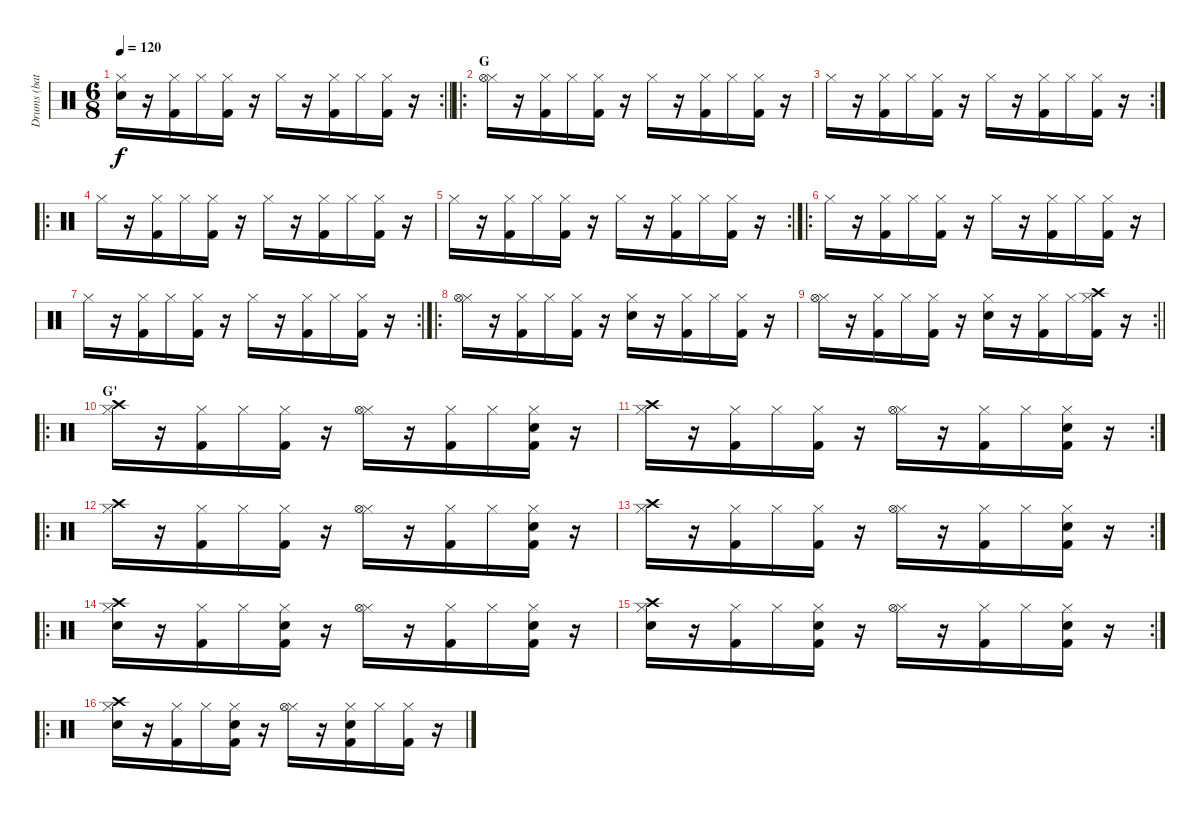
\track ("Drums (bateria)" "Drums (bat") {instrument percussion}
\staff {score}
\articulation defaults
\rc 2
\ts (6 8)
\tempo 120
\clef neutral
\barLineRight lightlight
\ks c
("Hi-Hat (closed)" "Snare (hit) 2").16{dy f} r.16 ("Hi-Hat (closed)" "Kick (hit) 2").16 "Hi-Hat (closed)".16 ("Hi-Hat (closed)" "Kick (hit) 2").16 r.16 "Hi-Hat (closed)".16 r.16 ("Hi-Hat (closed)" "Kick (hit) 2").16 "Hi-Hat (closed)".16 ("Hi-Hat (closed)" "Kick (hit) 2").16 r.16 |
\ro
\section ("" "G")
("Hi-Hat (closed)" "Hi-Hat (open)").16 r.16 ("Hi-Hat (closed)" "Kick (hit) 2").16 "Hi-Hat (closed)".16 ("Hi-Hat (closed)" "Kick (hit) 2").16 r.16 "Hi-Hat (closed)".16 r.16 ("Hi-Hat (closed)" "Kick (hit) 2").16 "Hi-Hat (closed)".16 ("Hi-Hat (closed)" "Kick (hit) 2").16 r.16 |
\rc 2 "Hi-Hat (closed)".16
r.16 ("Hi-Hat (closed)" "Kick (hit) 2").16 "Hi-Hat (closed)".16 ("Hi-Hat (closed)" "Kick (hit) 2").16 r.16 "Hi-Hat (closed)".16 r.16 ("Hi-Hat (closed)" "Kick (hit) 2").16 "Hi-Hat (closed)".16 ("Hi-Hat (closed)" "Kick (hit) 2").16 r.16 |
\ro "Hi-Hat (closed)".16
r.16 ("Hi-Hat (closed)" "Kick (hit) 2").16 "Hi-Hat (closed)".16 ("Hi-Hat (closed)" "Kick (hit) 2").16 r.16 "Hi-Hat (closed)".16 r.16 ("Hi-Hat (closed)" "Kick (hit) 2").16 "Hi-Hat (closed)".16 ("Hi-Hat (closed)" "Kick (hit) 2").16 r.16 |
\rc 2 "Hi-Hat (closed)".16
r.16 ("Hi-Hat (closed)" "Kick (hit) 2").16 "Hi-Hat (closed)".16 ("Hi-Hat (closed)" "Kick (hit) 2").16 r.16 "Hi-Hat (closed)".16 r.16 ("Hi-Hat (closed)" "Kick (hit) 2").16 "Hi-Hat (closed)".16 ("Hi-Hat (closed)" "Kick (hit) 2").16 r.16 |
\ro "Hi-Hat (closed)".16
r.16 ("Hi-Hat (closed)" "Kick (hit) 2").16 "Hi-Hat (closed)".16 ("Hi-Hat (closed)" "Kick (hit) 2").16 r.16 "Hi-Hat (closed)".16 r.16 ("Hi-Hat (closed)" "Kick (hit) 2").16 "Hi-Hat (closed)".16 ("Hi-Hat (closed)" "Kick (hit) 2").16 r.16 |
\rc 2 "Hi-Hat (closed)".16
r.16 ("Hi-Hat (closed)" "Kick (hit) 2").16 "Hi-Hat (closed)".16 ("Hi-Hat (closed)" "Kick (hit) 2").16 r.16 "Hi-Hat (closed)".16 r.16 ("Hi-Hat (closed)" "Kick (hit) 2").16 "Hi-Hat (closed)".16 ("Hi-Hat (closed)" "Kick (hit) 2").16 r.16 |
\ro
("Hi-Hat (closed)" "Hi-Hat (open)").16 r.16 ("Hi-Hat (closed)" "Kick (hit) 2").16 "Hi-Hat (closed)".16 ("Hi-Hat (closed)" "Kick (hit) 2").16 r.16 ("Hi-Hat (closed)" "Snare (hit) 2").16 r.16 ("Hi-Hat (closed)" "Kick (hit) 2").16 "Hi-Hat (closed)".16 ("Hi-Hat (closed)" "Kick (hit) 2").16 r.16 |
\rc 2
\barLineRight lightlight
("Hi-Hat (closed)" "Hi-Hat (open)").16 r.16 ("Hi-Hat (closed)" "Kick (hit) 2").16 "Hi-Hat (closed)".16 ("Hi-Hat (closed)" "Kick (hit) 2").16 r.16 ("Hi-Hat (closed)" "Snare (hit) 2").16 r.16 ("Hi-Hat (closed)" "Kick (hit) 2").16 "Hi-Hat (closed)".16 ("Hi-Hat (closed)" "Kick (hit) 2" "Crash high (hit)").16 r.16 |
\ro
\section ("" "G'")
("Hi-Hat (closed)" "Crash high (hit)").16 r.16 ("Hi-Hat (closed)" "Kick (hit) 2").16 "Hi-Hat (closed)".16 ("Hi-Hat (closed)" "Kick (hit) 2").16 r.16 ("Hi-Hat (closed)" "Hi-Hat (open)").16 r.16 ("Hi-Hat (closed)" "Kick (hit) 2").16 "Hi-Hat (closed)".16 ("Hi-Hat (closed)" "Kick (hit) 2" "Snare (hit) 2").16 r.16 |
\rc 2
("Hi-Hat (closed)" "Crash high (hit)").16 r.16 ("Hi-Hat (closed)" "Kick (hit) 2").16 "Hi-Hat (closed)".16 ("Hi-Hat (closed)" "Kick (hit) 2").16 r.16 ("Hi-Hat (closed)" "Hi-Hat (open)").16 r.16 ("Hi-Hat (closed)" "Kick (hit) 2").16 "Hi-Hat (closed)".16 ("Hi-Hat (closed)" "Kick (hit) 2" "Snare (hit) 2").16 r.16 |
\ro
("Hi-Hat (closed)" "Crash high (hit)").16 r.16 ("Hi-Hat (closed)" "Kick (hit) 2").16 "Hi-Hat (closed)".16 ("Hi-Hat (closed)" "Kick (hit) 2").16 r.16 ("Hi-Hat (closed)" "Hi-Hat (open)").16 r.16 ("Hi-Hat (closed)" "Kick (hit) 2").16 "Hi-Hat (closed)".16 ("Hi-Hat (closed)" "Kick (hit) 2" "Snare (hit) 2").16 r.16 |
\rc 2
("Hi-Hat (closed)" "Crash high (hit)").16 r.16 ("Hi-Hat (closed)" "Kick (hit) 2").16 "Hi-Hat (closed)".16 ("Hi-Hat (closed)" "Kick (hit) 2").16 r.16 ("Hi-Hat (closed)" "Hi-Hat (open)").16 r.16 ("Hi-Hat (closed)" "Kick (hit) 2").16 "Hi-Hat (closed)".16 ("Hi-Hat (closed)" "Kick (hit) 2" "Snare (hit) 2").16 r.16 |
\ro
("Hi-Hat (closed)" "Crash high (hit)" "Snare (hit) 2").16 r.16 ("Hi-Hat (closed)" "Kick (hit) 2").16 "Hi-Hat (closed)".16 ("Hi-Hat (closed)" "Kick (hit) 2" "Snare (hit) 2").16 r.16 ("Hi-Hat (closed)" "Hi-Hat (open)").16 r.16 ("Hi-Hat (closed)" "Kick (hit) 2").16 "Hi-Hat (closed)".16 ("Hi-Hat (closed)" "Kick (hit) 2" "Snare (hit) 2").16 r.16 |
\rc 2
("Hi-Hat (closed)" "Crash high (hit)" "Snare (hit) 2").16 r.16 ("Hi-Hat (closed)" "Kick (hit) 2").16 "Hi-Hat (closed)".16 ("Hi-Hat (closed)" "Kick (hit) 2" "Snare (hit) 2").16 r.16 ("Hi-Hat (closed)" "Hi-Hat (open)").16 r.16 ("Hi-Hat (closed)" "Kick (hit) 2").16 "Hi-Hat (closed)".16 ("Hi-Hat (closed)" "Kick (hit) 2" "Snare (hit) 2").16 r.16 |
\ro
("Hi-Hat (closed)" "Crash high (hit)" "Snare (hit) 2").16 r.16 ("Hi-Hat (closed)" "Kick (hit) 2").16 "Hi-Hat (closed)".16 ("Hi-Hat (closed)" "Kick (hit) 2" "Snare (hit) 2").16 r.16 ("Hi-Hat (closed)" "Hi-Hat (open)").16 r.16 ("Hi-Hat (closed)" "Kick (hit) 2" "Snare (hit) 2").16 "Hi-Hat (closed)".16 ("Hi-Hat (closed)" "Kick (hit) 2").16 r.16
